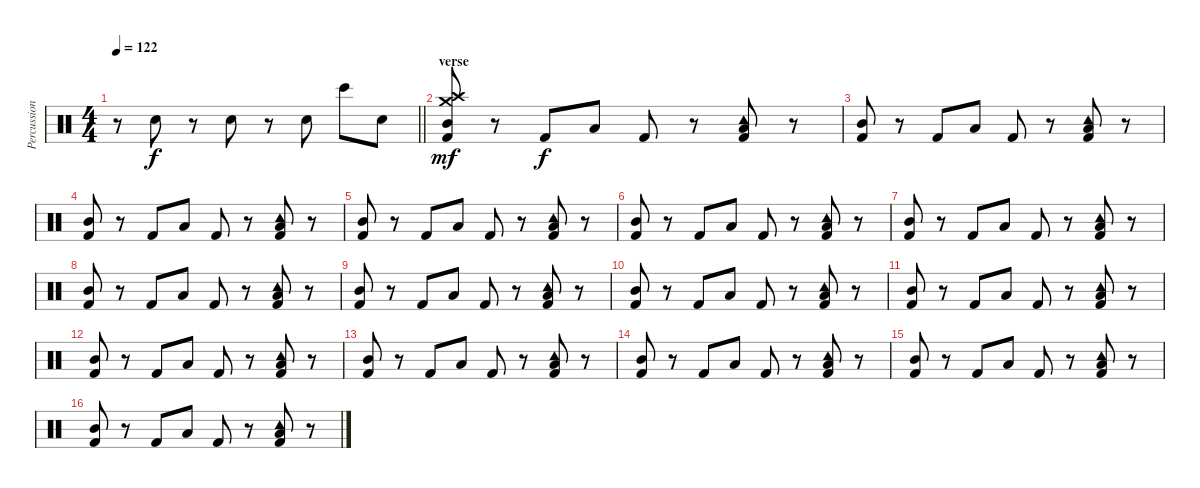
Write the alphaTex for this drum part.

\track ("Percussion" "Percussion") {instrument percussion}
\staff {score}
\articulation defaults
\ts (4 4)
\tempo 122
\clef neutral
\barLineRight lightlight
\ks c
r.8{dy f} "Hand Clap (hit)".8 r.8 "Hand Clap (hit)".8 r.8 "Hand Clap (hit)".8 "Bongo High (hit)".8 "Hand Clap (hit)".8 |
\section ("" "verse")
("Mid Tom (hit)" "Crash medium (hit)" "Crash high (hit)" "Kick (hit) 2").8{dy mf} r.8 "Kick (hit) 2".8{dy f} "Low Tom (hit)".8 "Kick (hit) 2".8 r.8 ("Tambourine (hit)" "Low Floor Tom (hit)" "Kick (hit) 2").8 r.8 |
("Mid Tom (hit)" "Kick (hit) 2").8 r.8 "Kick (hit) 2".8 "Low Tom (hit)".8 "Kick (hit) 2".8 r.8 ("Tambourine (hit)" "Low Floor Tom (hit)" "Kick (hit) 2").8 r.8 |
("Mid Tom (hit)" "Kick (hit) 2").8 r.8 "Kick (hit) 2".8 "Low Tom (hit)".8 "Kick (hit) 2".8 r.8 ("Tambourine (hit)" "Low Floor Tom (hit)" "Kick (hit) 2").8 r.8 |
("Mid Tom (hit)" "Kick (hit) 2").8 r.8 "Kick (hit) 2".8 "Low Tom (hit)".8 "Kick (hit) 2".8 r.8 ("Tambourine (hit)" "Low Floor Tom (hit)" "Kick (hit) 2").8 r.8 |
("Mid Tom (hit)" "Kick (hit) 2").8 r.8 "Kick (hit) 2".8 "Low Tom (hit)".8 "Kick (hit) 2".8 r.8 ("Tambourine (hit)" "Low Floor Tom (hit)" "Kick (hit) 2").8 r.8 |
("Mid Tom (hit)" "Kick (hit) 2").8 r.8 "Kick (hit) 2".8 "Low Tom (hit)".8 "Kick (hit) 2".8 r.8 ("Tambourine (hit)" "Low Floor Tom (hit)" "Kick (hit) 2").8 r.8 |
("Mid Tom (hit)" "Kick (hit) 2").8 r.8 "Kick (hit) 2".8 "Low Tom (hit)".8 "Kick (hit) 2".8 r.8 ("Tambourine (hit)" "Low Floor Tom (hit)" "Kick (hit) 2").8 r.8 |
("Mid Tom (hit)" "Kick (hit) 2").8 r.8 "Kick (hit) 2".8 "Low Tom (hit)".8 "Kick (hit) 2".8 r.8 ("Tambourine (hit)" "Low Floor Tom (hit)" "Kick (hit) 2").8 r.8 |
("Mid Tom (hit)" "Kick (hit) 2").8 r.8 "Kick (hit) 2".8 "Low Tom (hit)".8 "Kick (hit) 2".8 r.8 ("Tambourine (hit)" "Low Floor Tom (hit)" "Kick (hit) 2").8 r.8 |
("Mid Tom (hit)" "Kick (hit) 2").8 r.8 "Kick (hit) 2".8 "Low Tom (hit)".8 "Kick (hit) 2".8 r.8 ("Tambourine (hit)" "Low Floor Tom (hit)" "Kick (hit) 2").8 r.8 |
("Mid Tom (hit)" "Kick (hit) 2").8 r.8 "Kick (hit) 2".8 "Low Tom (hit)".8 "Kick (hit) 2".8 r.8 ("Tambourine (hit)" "Low Floor Tom (hit)" "Kick (hit) 2").8 r.8 |
("Mid Tom (hit)" "Kick (hit) 2").8 r.8 "Kick (hit) 2".8 "Low Tom (hit)".8 "Kick (hit) 2".8 r.8 ("Tambourine (hit)" "Low Floor Tom (hit)" "Kick (hit) 2").8 r.8 |
("Mid Tom (hit)" "Kick (hit) 2").8 r.8 "Kick (hit) 2".8 "Low Tom (hit)".8 "Kick (hit) 2".8 r.8 ("Tambourine (hit)" "Low Floor Tom (hit)" "Kick (hit) 2").8 r.8 |
("Mid Tom (hit)" "Kick (hit) 2").8 r.8 "Kick (hit) 2".8 "Low Tom (hit)".8 "Kick (hit) 2".8 r.8 ("Tambourine (hit)" "Low Floor Tom (hit)" "Kick (hit) 2").8 r.8 |
("Mid Tom (hit)" "Kick (hit) 2").8 r.8 "Kick (hit) 2".8 "Low Tom (hit)".8 "Kick (hit) 2".8 r.8 ("Tambourine (hit)" "Low Floor Tom (hit)" "Kick (hit) 2").8 r.8
